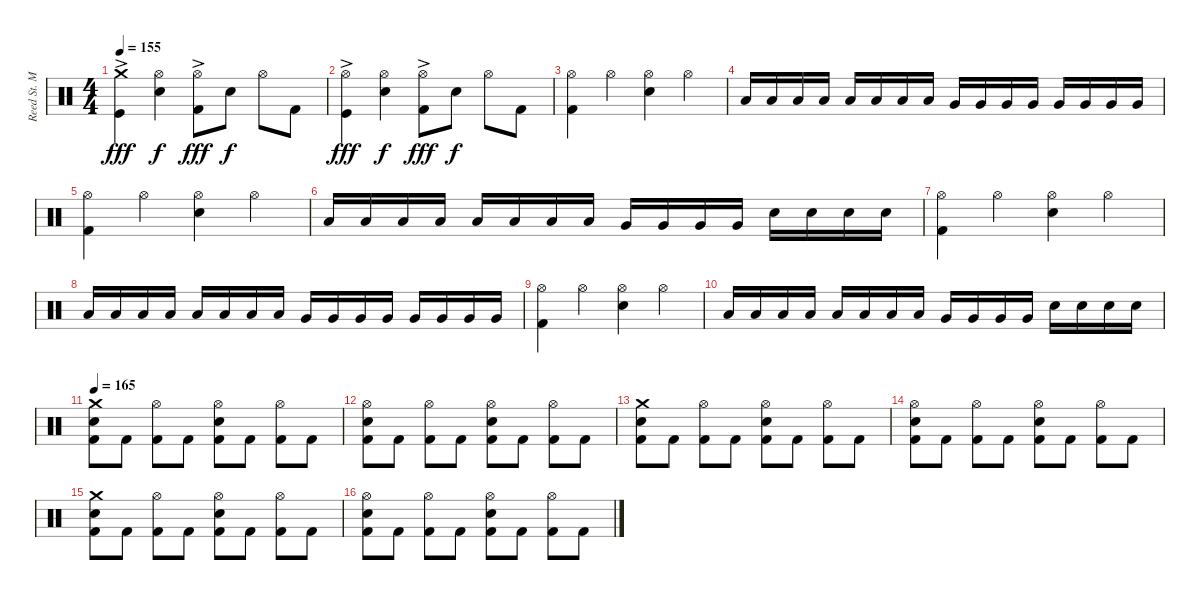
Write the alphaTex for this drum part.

\track ("Reed St. Mark" "Reed St. M") {instrument percussion}
\staff {score}
\articulation defaults
\ts (4 4)
\tempo 155
\clef neutral
\ks c
("Crash medium (hit)" "Kick (hit)"{ac}).4{dy fff} ("Hi-Hat (open)" "Snare (hit) 2").4{dy f} ("Hi-Hat (open)"{ac} "Kick (hit) 2").8{dy fff} "Snare (hit) 2".8{dy f} "Hi-Hat (open)".8 "Kick (hit) 2".8 |
("Hi-Hat (open)" "Kick (hit)"{ac}).4{dy fff} ("Hi-Hat (open)" "Snare (hit) 2").4{dy f} ("Hi-Hat (open)"{ac} "Kick (hit) 2").8{dy fff} "Snare (hit) 2".8{dy f} "Hi-Hat (open)".8 "Kick (hit) 2".8 |
("Hi-Hat (open)" "Kick (hit) 2").4 "Hi-Hat (open)".4 ("Hi-Hat (open)" "Snare (hit) 2").4 "Hi-Hat (open)".4 |
"Low Tom (hit)".16 "Low Tom (hit)".16 "Low Tom (hit)".16 "Low Tom (hit)".16 "Low Tom (hit)".16 "Low Tom (hit)".16 "Low Tom (hit)".16 "Low Tom (hit)".16 "Very Low Tom (hit)".16 "Very Low Tom (hit)".16 "Very Low Tom (hit)".16 "Very Low Tom (hit)".16 "Very Low Tom (hit)".16 "Very Low Tom (hit)".16 "Very Low Tom (hit)".16 "Very Low Tom (hit)".16 |
("Hi-Hat (open)" "Kick (hit) 2").4 "Hi-Hat (open)".4 ("Hi-Hat (open)" "Snare (hit) 2").4 "Hi-Hat (open)".4 |
"Low Tom (hit)".16 "Low Tom (hit)".16 "Low Tom (hit)".16 "Low Tom (hit)".16 "Low Tom (hit)".16 "Low Tom (hit)".16 "Low Tom (hit)".16 "Low Tom (hit)".16 "Very Low Tom (hit)".16 "Very Low Tom (hit)".16 "Very Low Tom (hit)".16 "Very Low Tom (hit)".16 "Snare (hit) 2".16 "Snare (hit) 2".16 "Snare (hit) 2".16 "Snare (hit) 2".16 |
("Hi-Hat (open)" "Kick (hit) 2").4 "Hi-Hat (open)".4 ("Hi-Hat (open)" "Snare (hit) 2").4 "Hi-Hat (open)".4 |
"Low Tom (hit)".16 "Low Tom (hit)".16 "Low Tom (hit)".16 "Low Tom (hit)".16 "Low Tom (hit)".16 "Low Tom (hit)".16 "Low Tom (hit)".16 "Low Tom (hit)".16 "Very Low Tom (hit)".16 "Very Low Tom (hit)".16 "Very Low Tom (hit)".16 "Very Low Tom (hit)".16 "Very Low Tom (hit)".16 "Very Low Tom (hit)".16 "Very Low Tom (hit)".16 "Very Low Tom (hit)".16 |
("Hi-Hat (open)" "Kick (hit) 2").4 "Hi-Hat (open)".4 ("Hi-Hat (open)" "Snare (hit) 2").4 "Hi-Hat (open)".4 |
"Low Tom (hit)".16 "Low Tom (hit)".16 "Low Tom (hit)".16 "Low Tom (hit)".16 "Low Tom (hit)".16 "Low Tom (hit)".16 "Low Tom (hit)".16 "Low Tom (hit)".16 "Very Low Tom (hit)".16 "Very Low Tom (hit)".16 "Very Low Tom (hit)".16 "Very Low Tom (hit)".16 "Snare (hit) 2".16 "Snare (hit) 2".16 "Snare (hit) 2".16 "Snare (hit) 2".16 |
\tempo 165
("Crash medium (hit)" "Snare (hit) 2" "Kick (hit) 2").8 "Kick (hit) 2".8 ("Hi-Hat (open)" "Kick (hit) 2").8 "Kick (hit) 2".8 ("Hi-Hat (open)" "Snare (hit) 2" "Kick (hit) 2").8 "Kick (hit) 2".8 ("Hi-Hat (open)" "Kick (hit) 2").8 "Kick (hit) 2".8 |
("Hi-Hat (open)" "Snare (hit) 2" "Kick (hit) 2").8 "Kick (hit) 2".8 ("Hi-Hat (open)" "Kick (hit) 2").8 "Kick (hit) 2".8 ("Hi-Hat (open)" "Snare (hit) 2" "Kick (hit) 2").8 "Kick (hit) 2".8 ("Hi-Hat (open)" "Kick (hit) 2").8 "Kick (hit) 2".8 |
("Crash medium (hit)" "Snare (hit) 2" "Kick (hit) 2").8 "Kick (hit) 2".8 ("Hi-Hat (open)" "Kick (hit) 2").8 "Kick (hit) 2".8 ("Hi-Hat (open)" "Snare (hit) 2" "Kick (hit) 2").8 "Kick (hit) 2".8 ("Hi-Hat (open)" "Kick (hit) 2").8 "Kick (hit) 2".8 |
("Hi-Hat (open)" "Snare (hit) 2" "Kick (hit) 2").8 "Kick (hit) 2".8 ("Hi-Hat (open)" "Kick (hit) 2").8 "Kick (hit) 2".8 ("Hi-Hat (open)" "Snare (hit) 2" "Kick (hit) 2").8 "Kick (hit) 2".8 ("Hi-Hat (open)" "Kick (hit) 2").8 "Kick (hit) 2".8 |
("Crash medium (hit)" "Snare (hit) 2" "Kick (hit) 2").8 "Kick (hit) 2".8 ("Hi-Hat (open)" "Kick (hit) 2").8 "Kick (hit) 2".8 ("Hi-Hat (open)" "Snare (hit) 2" "Kick (hit) 2").8 "Kick (hit) 2".8 ("Hi-Hat (open)" "Kick (hit) 2").8 "Kick (hit) 2".8 |
("Hi-Hat (open)" "Snare (hit) 2" "Kick (hit) 2").8 "Kick (hit) 2".8 ("Hi-Hat (open)" "Kick (hit) 2").8 "Kick (hit) 2".8 ("Hi-Hat (open)" "Snare (hit) 2" "Kick (hit) 2").8 "Kick (hit) 2".8 ("Hi-Hat (open)" "Kick (hit) 2").8 "Kick (hit) 2".8
